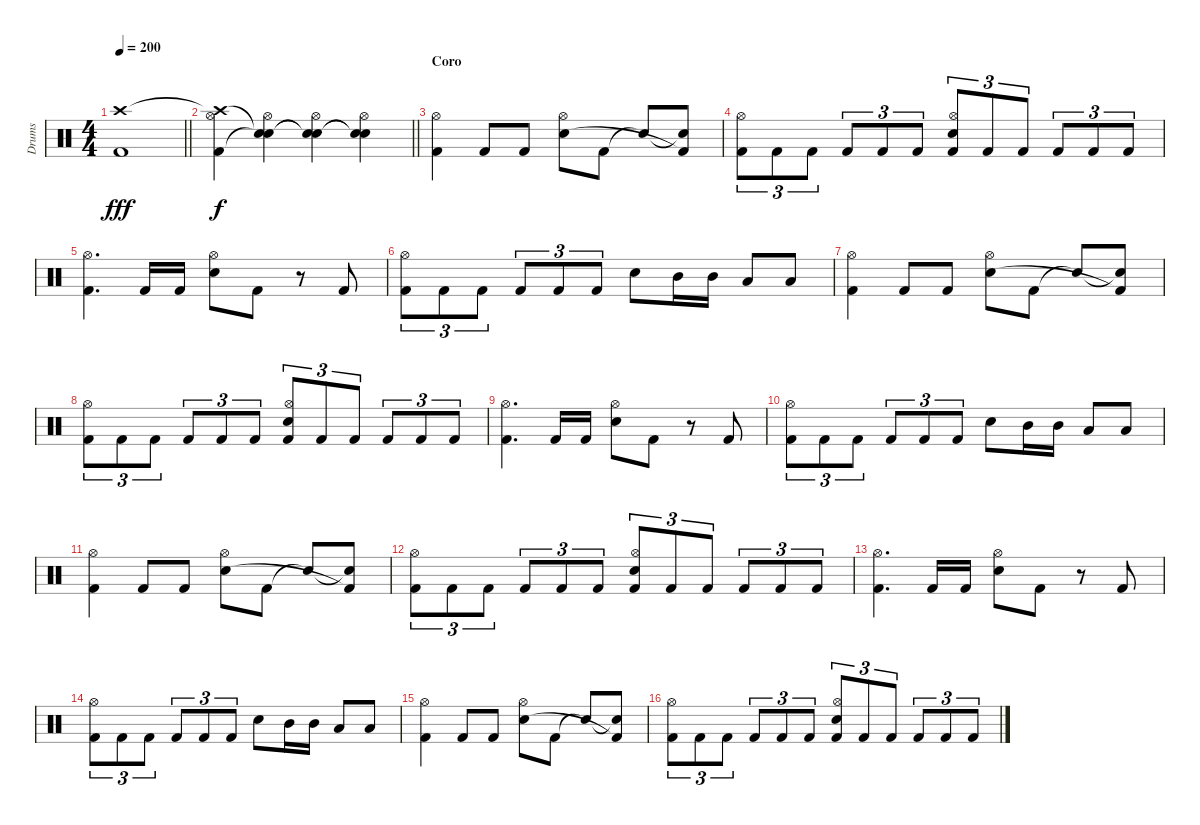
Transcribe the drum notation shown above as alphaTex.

\track ("Drums" "Drums") {instrument percussion}
\staff {score}
\articulation defaults
\ts (4 4)
\tempo 200
\clef neutral
\barLineRight lightlight
\ks c
("Crash high (hit)" "Kick (hit) 2").1{dy fff} |
\barLineRight lightlight
("Crash high (hit)"{t} "Hi-Hat (open)" "Kick (hit) 2").4{dy f} ("Snare (hit)"{t} "Hi-Hat (open)" "Snare (hit)"{t}).4 ("Snare (hit)"{t} "Hi-Hat (open)" "Snare (hit)"{t}).4 ("Snare (hit)"{t} "Hi-Hat (open)" "Snare (hit)"{t}).4 |
\section ("" "Coro")
("Hi-Hat (open)" "Kick (hit) 2").4 "Kick (hit) 2".8 "Kick (hit) 2".8 ("Hi-Hat (open)" "Electric Snare (hit)").8 "Kick (hit) 2".8 "Snare (hit)"{t}.8 ("Snare (hit)"{t} "Kick (hit) 2"{t}).8 |
("Hi-Hat (open)" "Kick (hit) 2").8{tu (3 2)} "Kick (hit) 2".8{tu (3 2)} "Kick (hit) 2".8{tu (3 2)} "Kick (hit) 2".8{tu (3 2)} "Kick (hit) 2".8{tu (3 2)} "Kick (hit) 2".8{tu (3 2)} ("Hi-Hat (open)" "Electric Snare (hit)" "Kick (hit) 2").8{tu (3 2)} "Kick (hit) 2".8{tu (3 2)} "Kick (hit) 2".8{tu (3 2)} "Kick (hit) 2".8{tu (3 2)} "Kick (hit) 2".8{tu (3 2)} "Kick (hit) 2".8{tu (3 2)} |
("Hi-Hat (open)" "Kick (hit) 2").4{d} "Kick (hit) 2".16 "Kick (hit) 2".16 ("Hi-Hat (open)" "Electric Snare (hit)").8 "Kick (hit) 2".8 r.8 "Kick (hit) 2".8 |
("Hi-Hat (open)" "Kick (hit) 2").8{tu (3 2)} "Kick (hit) 2".8{tu (3 2)} "Kick (hit) 2".8{tu (3 2)} "Kick (hit) 2".8{tu (3 2)} "Kick (hit) 2".8{tu (3 2)} "Kick (hit) 2".8{tu (3 2)} "Electric Snare (hit)".8 "Mid Tom (hit)".16 "Mid Tom (hit)".16 "Low Tom (hit)".8 "Low Tom (hit)".8 |
("Hi-Hat (open)" "Kick (hit) 2").4 "Kick (hit) 2".8 "Kick (hit) 2".8 ("Hi-Hat (open)" "Electric Snare (hit)").8 "Kick (hit) 2".8 "Snare (hit)"{t}.8 ("Snare (hit)"{t} "Kick (hit) 2"{t}).8 |
("Hi-Hat (open)" "Kick (hit) 2").8{tu (3 2)} "Kick (hit) 2".8{tu (3 2)} "Kick (hit) 2".8{tu (3 2)} "Kick (hit) 2".8{tu (3 2)} "Kick (hit) 2".8{tu (3 2)} "Kick (hit) 2".8{tu (3 2)} ("Hi-Hat (open)" "Electric Snare (hit)" "Kick (hit) 2").8{tu (3 2)} "Kick (hit) 2".8{tu (3 2)} "Kick (hit) 2".8{tu (3 2)} "Kick (hit) 2".8{tu (3 2)} "Kick (hit) 2".8{tu (3 2)} "Kick (hit) 2".8{tu (3 2)} |
("Hi-Hat (open)" "Kick (hit) 2").4{d} "Kick (hit) 2".16 "Kick (hit) 2".16 ("Hi-Hat (open)" "Electric Snare (hit)").8 "Kick (hit) 2".8 r.8 "Kick (hit) 2".8 |
("Hi-Hat (open)" "Kick (hit) 2").8{tu (3 2)} "Kick (hit) 2".8{tu (3 2)} "Kick (hit) 2".8{tu (3 2)} "Kick (hit) 2".8{tu (3 2)} "Kick (hit) 2".8{tu (3 2)} "Kick (hit) 2".8{tu (3 2)} "Electric Snare (hit)".8 "Mid Tom (hit)".16 "Mid Tom (hit)".16 "Low Tom (hit)".8 "Low Tom (hit)".8 |
("Hi-Hat (open)" "Kick (hit) 2").4 "Kick (hit) 2".8 "Kick (hit) 2".8 ("Hi-Hat (open)" "Electric Snare (hit)").8 "Kick (hit) 2".8 "Snare (hit)"{t}.8 ("Snare (hit)"{t} "Kick (hit) 2"{t}).8 |
("Hi-Hat (open)" "Kick (hit) 2").8{tu (3 2)} "Kick (hit) 2".8{tu (3 2)} "Kick (hit) 2".8{tu (3 2)} "Kick (hit) 2".8{tu (3 2)} "Kick (hit) 2".8{tu (3 2)} "Kick (hit) 2".8{tu (3 2)} ("Hi-Hat (open)" "Electric Snare (hit)" "Kick (hit) 2").8{tu (3 2)} "Kick (hit) 2".8{tu (3 2)} "Kick (hit) 2".8{tu (3 2)} "Kick (hit) 2".8{tu (3 2)} "Kick (hit) 2".8{tu (3 2)} "Kick (hit) 2".8{tu (3 2)} |
("Hi-Hat (open)" "Kick (hit) 2").4{d} "Kick (hit) 2".16 "Kick (hit) 2".16 ("Hi-Hat (open)" "Electric Snare (hit)").8 "Kick (hit) 2".8 r.8 "Kick (hit) 2".8 |
("Hi-Hat (open)" "Kick (hit) 2").8{tu (3 2)} "Kick (hit) 2".8{tu (3 2)} "Kick (hit) 2".8{tu (3 2)} "Kick (hit) 2".8{tu (3 2)} "Kick (hit) 2".8{tu (3 2)} "Kick (hit) 2".8{tu (3 2)} "Electric Snare (hit)".8 "Mid Tom (hit)".16 "Mid Tom (hit)".16 "Low Tom (hit)".8 "Low Tom (hit)".8 |
("Hi-Hat (open)" "Kick (hit) 2").4 "Kick (hit) 2".8 "Kick (hit) 2".8 ("Hi-Hat (open)" "Electric Snare (hit)").8 "Kick (hit) 2".8 "Snare (hit)"{t}.8 ("Snare (hit)"{t} "Kick (hit) 2"{t}).8 |
("Hi-Hat (open)" "Kick (hit) 2").8{tu (3 2)} "Kick (hit) 2".8{tu (3 2)} "Kick (hit) 2".8{tu (3 2)} "Kick (hit) 2".8{tu (3 2)} "Kick (hit) 2".8{tu (3 2)} "Kick (hit) 2".8{tu (3 2)} ("Hi-Hat (open)" "Electric Snare (hit)" "Kick (hit) 2").8{tu (3 2)} "Kick (hit) 2".8{tu (3 2)} "Kick (hit) 2".8{tu (3 2)} "Kick (hit) 2".8{tu (3 2)} "Kick (hit) 2".8{tu (3 2)} "Kick (hit) 2".8{tu (3 2)}
